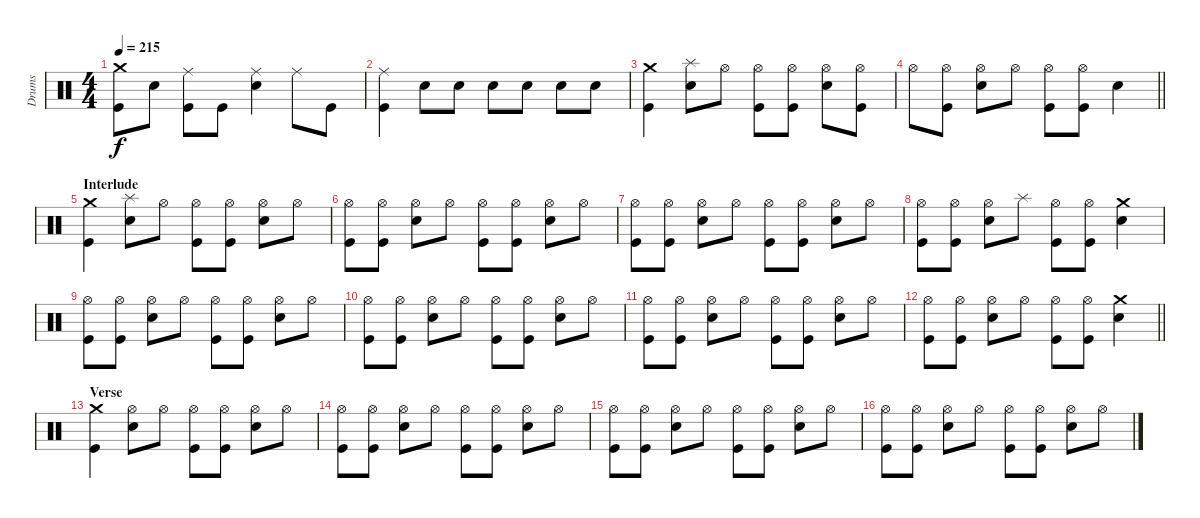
\track ("Drums" "Drums") {instrument percussion}
\staff {score}
\articulation defaults
\ts (4 4)
\tempo 215
\clef neutral
\ks c
("Crash medium (hit)" "Kick (hit)").8{dy f} "Snare (hit) 2".8 ("Kick (hit)" "Ride (middle)").8 "Kick (hit)".8 ("Snare (hit) 2" "Ride (middle)").4 "Ride (middle)".8 "Kick (hit)".8 |
("Kick (hit)" "Ride (middle)").4 "Snare (hit) 2".8 "Snare (hit) 2".8 "Snare (hit) 2".8 "Snare (hit) 2".8 "Snare (hit) 2".8 "Snare (hit) 2".8 |
("Kick (hit)" "Crash medium (hit)").4 ("Snare (hit) 2" "Splash (hit)").8 "Hi-Hat (open)".8 ("Kick (hit)" "Hi-Hat (open)").8 ("Kick (hit)" "Hi-Hat (open)").8 ("Snare (hit) 2" "Hi-Hat (open)").8 ("Hi-Hat (open)" "Kick (hit)").8 |
\barLineRight lightlight "Hi-Hat (open)".8
("Kick (hit)" "Hi-Hat (open)").8 ("Snare (hit) 2" "Hi-Hat (open)").8 "Hi-Hat (open)".8 ("Kick (hit)" "Hi-Hat (open)").8 ("Kick (hit)" "Hi-Hat (open)").8 "Snare (hit) 2".4 |
\section ("" "Interlude")
("Kick (hit)" "Crash medium (hit)").4 ("Snare (hit) 2" "Splash (hit)").8 "Hi-Hat (open)".8 ("Kick (hit)" "Hi-Hat (open)").8 ("Kick (hit)" "Hi-Hat (open)").8 ("Snare (hit) 2" "Hi-Hat (open)").8 "Hi-Hat (open)".8 |
("Kick (hit)" "Hi-Hat (open)").8 ("Kick (hit)" "Hi-Hat (open)").8 ("Snare (hit) 2" "Hi-Hat (open)").8 "Hi-Hat (open)".8 ("Kick (hit)" "Hi-Hat (open)").8 ("Kick (hit)" "Hi-Hat (open)").8 ("Snare (hit) 2" "Hi-Hat (open)").8 "Hi-Hat (open)".8 |
("Kick (hit)" "Hi-Hat (open)").8 ("Kick (hit)" "Hi-Hat (open)").8 ("Snare (hit) 2" "Hi-Hat (open)").8 "Hi-Hat (open)".8 ("Kick (hit)" "Hi-Hat (open)").8 ("Kick (hit)" "Hi-Hat (open)").8 ("Snare (hit) 2" "Hi-Hat (open)").8 "Hi-Hat (open)".8 |
("Kick (hit)" "Hi-Hat (open)").8 ("Kick (hit)" "Hi-Hat (open)").8 ("Snare (hit) 2" "Hi-Hat (open)").8 "Splash (hit)".8 ("Kick (hit)" "Hi-Hat (open)").8 ("Kick (hit)" "Hi-Hat (open)").8 ("Snare (hit) 2" "Crash medium (hit)").4 |
("Kick (hit)" "Hi-Hat (open)").8 ("Kick (hit)" "Hi-Hat (open)").8 ("Snare (hit) 2" "Hi-Hat (open)").8 "Hi-Hat (open)".8 ("Kick (hit)" "Hi-Hat (open)").8 ("Kick (hit)" "Hi-Hat (open)").8 ("Snare (hit) 2" "Hi-Hat (open)").8 "Hi-Hat (open)".8 |
("Kick (hit)" "Hi-Hat (open)").8 ("Kick (hit)" "Hi-Hat (open)").8 ("Snare (hit) 2" "Hi-Hat (open)").8 "Hi-Hat (open)".8 ("Kick (hit)" "Hi-Hat (open)").8 ("Kick (hit)" "Hi-Hat (open)").8 ("Snare (hit) 2" "Hi-Hat (open)").8 "Hi-Hat (open)".8 |
("Kick (hit)" "Hi-Hat (open)").8 ("Kick (hit)" "Hi-Hat (open)").8 ("Snare (hit) 2" "Hi-Hat (open)").8 "Hi-Hat (open)".8 ("Kick (hit)" "Hi-Hat (open)").8 ("Kick (hit)" "Hi-Hat (open)").8 ("Snare (hit) 2" "Hi-Hat (open)").8 "Hi-Hat (open)".8 |
\barLineRight lightlight
("Kick (hit)" "Hi-Hat (open)").8 ("Kick (hit)" "Hi-Hat (open)").8 ("Snare (hit) 2" "Hi-Hat (open)").8 "Hi-Hat (open)".8 ("Kick (hit)" "Hi-Hat (open)").8 ("Kick (hit)" "Hi-Hat (open)").8 ("Snare (hit) 2" "Crash medium (hit)").4 |
\section ("" "Verse")
("Kick (hit)" "Crash medium (hit)").4 ("Snare (hit) 2" "Hi-Hat (open)").8 "Hi-Hat (open)".8 ("Kick (hit)" "Hi-Hat (open)").8 ("Kick (hit)" "Hi-Hat (open)").8 ("Snare (hit) 2" "Hi-Hat (open)").8 "Hi-Hat (open)".8 |
("Kick (hit)" "Hi-Hat (open)").8 ("Kick (hit)" "Hi-Hat (open)").8 ("Snare (hit) 2" "Hi-Hat (open)").8 "Hi-Hat (open)".8 ("Kick (hit)" "Hi-Hat (open)").8 ("Kick (hit)" "Hi-Hat (open)").8 ("Snare (hit) 2" "Hi-Hat (open)").8 "Hi-Hat (open)".8 |
("Kick (hit)" "Hi-Hat (open)").8 ("Kick (hit)" "Hi-Hat (open)").8 ("Snare (hit) 2" "Hi-Hat (open)").8 "Hi-Hat (open)".8 ("Kick (hit)" "Hi-Hat (open)").8 ("Kick (hit)" "Hi-Hat (open)").8 ("Snare (hit) 2" "Hi-Hat (open)").8 "Hi-Hat (open)".8 |
("Kick (hit)" "Hi-Hat (open)").8 ("Kick (hit)" "Hi-Hat (open)").8 ("Snare (hit) 2" "Hi-Hat (open)").8 "Hi-Hat (open)".8 ("Kick (hit)" "Hi-Hat (open)").8 ("Kick (hit)" "Hi-Hat (open)").8 ("Snare (hit) 2" "Hi-Hat (open)").8 "Hi-Hat (open)".8
